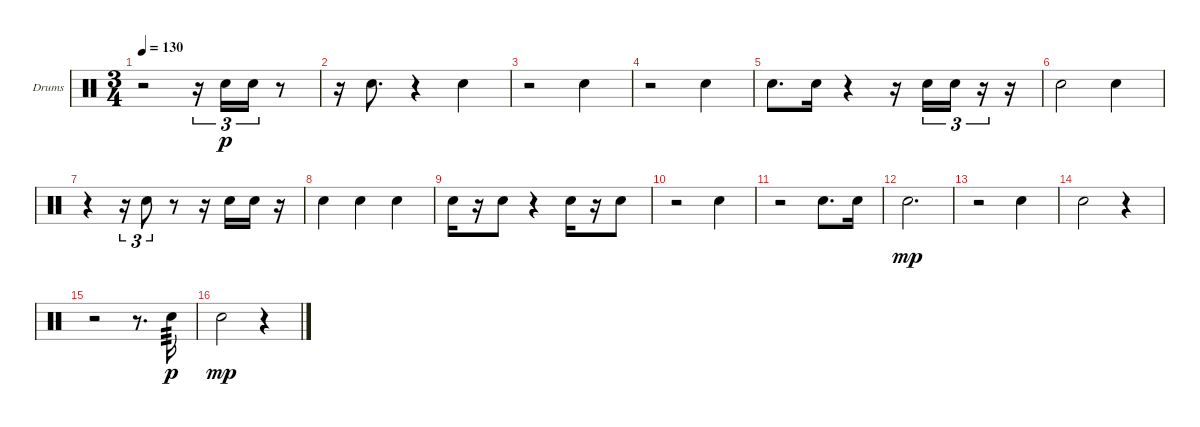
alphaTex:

\bracketExtendMode groupsimilarinstruments
\firstSystemTrackNameOrientation horizontal
\otherSystemsTrackNameOrientation horizontal
\track ("Drums" "Drums") {instrument percussion}
\staff {score}
\articulation defaults
\ts (3 4)
\tempo 130
\clef neutral
\ks c
r.2{dy p} r.16{tu (3 2)} "Snare (hit) 2".16{tu (3 2)} "Snare (hit) 2".16{tu (3 2)} r.8 |
r.16 "Snare (hit) 2".8{d} r.4 "Snare (hit) 2".4 |
r.2 "Snare (hit) 2".4 |
r.2 "Snare (hit) 2".4 |
"Snare (hit) 2".8{d} "Snare (hit) 2".16 r.4 r.16 "Snare (hit) 2".16{tu (3 2)} "Snare (hit) 2".16{tu (3 2)} r.16{tu (3 2)} r.16 |
"Snare (hit) 2".2 "Snare (hit) 2".4 |
r.4 r.16{tu (3 2)} "Snare (hit) 2".8{tu (3 2)} r.8 r.16 "Snare (hit) 2".16 "Snare (hit) 2".16 r.16 |
"Snare (hit) 2".4 "Snare (hit) 2".4 "Snare (hit) 2".4 |
"Snare (hit) 2".16 r.16 "Snare (hit) 2".8 r.4 "Snare (hit) 2".16 r.16 "Snare (hit) 2".8 |
r.2 "Snare (hit) 2".4 |
r.2 "Snare (hit) 2".8{d} "Snare (hit) 2".16 |
"Snare (hit) 2".2{d dy mp} |
r.2 "Snare (hit) 2".4 |
"Snare (hit) 2".2 r.4 |
r.2 r.8{d} "Snare (hit) 2".16{tp 3 dy p} |
"Snare (hit) 2".2{dy mp} r.4
